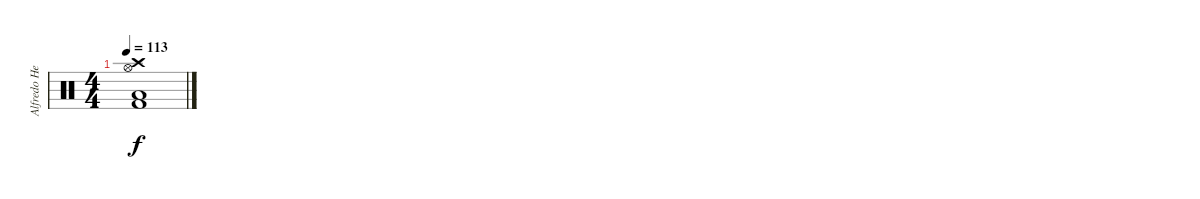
\track ("Alfredo Hernández" "Alfredo He") {instrument percussion}
\staff {score}
\articulation defaults
\ts (4 4)
\tempo 113
\clef neutral
\ks c
("Crash high (hit)" "Low Floor Tom (hit)" "Hi-Hat (open)" "Kick (hit) 2").1{dy f}
